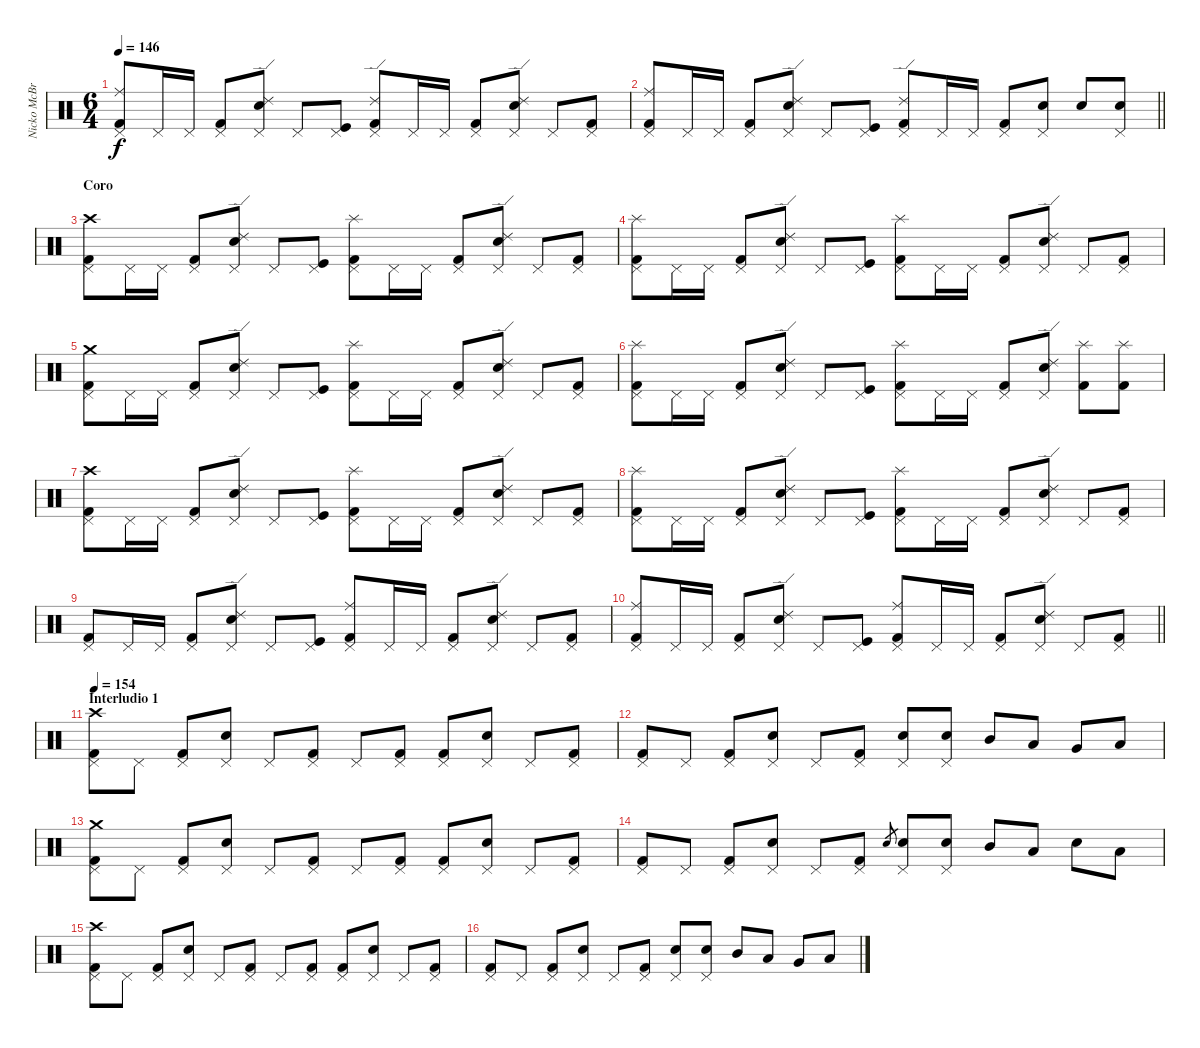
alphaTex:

\track ("Nicko McBrain" "Nicko McBr") {instrument percussion}
\staff {score}
\articulation defaults
\ts (6 4)
\tempo 146
\clef neutral
\ks c
("Kick (hit) 2" "Pedal Hi-Hat (hit)" "Ride (middle)").8{dy f} "Pedal Hi-Hat (hit)".16 "Pedal Hi-Hat (hit)".16 ("Kick (hit) 2" "Pedal Hi-Hat (hit)").8 ("Snare (hit) 2" "Pedal Hi-Hat (hit)" "Ride (edge) 2").8 "Pedal Hi-Hat (hit)".8 ("Kick (hit)" "Pedal Hi-Hat (hit)").8 ("Kick (hit) 2" "Pedal Hi-Hat (hit)" "Ride (edge) 2").8 "Pedal Hi-Hat (hit)".16 "Pedal Hi-Hat (hit)".16 ("Kick (hit) 2" "Pedal Hi-Hat (hit)").8 ("Snare (hit) 2" "Pedal Hi-Hat (hit)" "Ride (edge) 2").8 "Pedal Hi-Hat (hit)".8 ("Kick (hit) 2" "Pedal Hi-Hat (hit)").8 |
\barLineRight lightlight
("Kick (hit) 2" "Pedal Hi-Hat (hit)" "Ride (middle)").8 "Pedal Hi-Hat (hit)".16 "Pedal Hi-Hat (hit)".16 ("Kick (hit) 2" "Pedal Hi-Hat (hit)").8 ("Snare (hit) 2" "Pedal Hi-Hat (hit)" "Ride (edge) 2").8 "Pedal Hi-Hat (hit)".8 ("Kick (hit)" "Pedal Hi-Hat (hit)").8 ("Kick (hit) 2" "Pedal Hi-Hat (hit)" "Ride (edge) 2").8 "Pedal Hi-Hat (hit)".16 "Pedal Hi-Hat (hit)".16 ("Kick (hit) 2" "Pedal Hi-Hat (hit)").8 ("Snare (hit) 2" "Pedal Hi-Hat (hit)").8 "Snare (hit) 2".8 ("Snare (hit) 2" "Pedal Hi-Hat (hit)").8 |
\section ("" "Coro")
("Kick (hit) 2" "Pedal Hi-Hat (hit)" "Crash high (hit)").8 "Pedal Hi-Hat (hit)".16 "Pedal Hi-Hat (hit)".16 ("Kick (hit) 2" "Pedal Hi-Hat (hit)").8 ("Snare (hit) 2" "Pedal Hi-Hat (hit)" "Ride (edge) 2").8 "Pedal Hi-Hat (hit)".8 ("Kick (hit)" "Pedal Hi-Hat (hit)").8 ("Kick (hit) 2" "Pedal Hi-Hat (hit)" "Splash (hit)").8 "Pedal Hi-Hat (hit)".16 "Pedal Hi-Hat (hit)".16 ("Kick (hit) 2" "Pedal Hi-Hat (hit)").8 ("Snare (hit) 2" "Pedal Hi-Hat (hit)" "Ride (edge) 2").8 "Pedal Hi-Hat (hit)".8 ("Kick (hit) 2" "Pedal Hi-Hat (hit)").8 |
("Kick (hit) 2" "Pedal Hi-Hat (hit)" "Splash (hit)").8 "Pedal Hi-Hat (hit)".16 "Pedal Hi-Hat (hit)".16 ("Kick (hit) 2" "Pedal Hi-Hat (hit)").8 ("Snare (hit) 2" "Pedal Hi-Hat (hit)" "Ride (edge) 2").8 "Pedal Hi-Hat (hit)".8 ("Kick (hit)" "Pedal Hi-Hat (hit)").8 ("Kick (hit) 2" "Pedal Hi-Hat (hit)" "Splash (hit)").8 "Pedal Hi-Hat (hit)".16 "Pedal Hi-Hat (hit)".16 ("Kick (hit) 2" "Pedal Hi-Hat (hit)").8 ("Snare (hit) 2" "Pedal Hi-Hat (hit)" "Ride (edge) 2").8 "Pedal Hi-Hat (hit)".8 ("Kick (hit) 2" "Pedal Hi-Hat (hit)").8 |
("Kick (hit) 2" "Pedal Hi-Hat (hit)" "Crash medium (hit)").8 "Pedal Hi-Hat (hit)".16 "Pedal Hi-Hat (hit)".16 ("Kick (hit) 2" "Pedal Hi-Hat (hit)").8 ("Snare (hit) 2" "Pedal Hi-Hat (hit)" "Ride (edge) 2").8 "Pedal Hi-Hat (hit)".8 ("Kick (hit)" "Pedal Hi-Hat (hit)").8 ("Kick (hit) 2" "Pedal Hi-Hat (hit)" "Splash (hit)").8 "Pedal Hi-Hat (hit)".16 "Pedal Hi-Hat (hit)".16 ("Kick (hit) 2" "Pedal Hi-Hat (hit)").8 ("Snare (hit) 2" "Pedal Hi-Hat (hit)" "Ride (edge) 2").8 "Pedal Hi-Hat (hit)".8 ("Kick (hit) 2" "Pedal Hi-Hat (hit)").8 |
("Kick (hit) 2" "Pedal Hi-Hat (hit)" "Splash (hit)").8 "Pedal Hi-Hat (hit)".16 "Pedal Hi-Hat (hit)".16 ("Kick (hit) 2" "Pedal Hi-Hat (hit)").8 ("Snare (hit) 2" "Pedal Hi-Hat (hit)" "Ride (edge) 2").8 "Pedal Hi-Hat (hit)".8 ("Kick (hit)" "Pedal Hi-Hat (hit)").8 ("Kick (hit) 2" "Pedal Hi-Hat (hit)" "Splash (hit)").8 "Pedal Hi-Hat (hit)".16 "Pedal Hi-Hat (hit)".16 ("Kick (hit) 2" "Pedal Hi-Hat (hit)").8 ("Snare (hit) 2" "Pedal Hi-Hat (hit)" "Ride (edge) 2").8 ("Kick (hit) 2" "Splash (hit)").8 ("Kick (hit) 2" "Splash (hit)").8 |
("Kick (hit) 2" "Pedal Hi-Hat (hit)" "Crash high (hit)").8 "Pedal Hi-Hat (hit)".16 "Pedal Hi-Hat (hit)".16 ("Kick (hit) 2" "Pedal Hi-Hat (hit)").8 ("Snare (hit) 2" "Pedal Hi-Hat (hit)" "Ride (edge) 2").8 "Pedal Hi-Hat (hit)".8 ("Kick (hit)" "Pedal Hi-Hat (hit)").8 ("Kick (hit) 2" "Pedal Hi-Hat (hit)" "Splash (hit)").8 "Pedal Hi-Hat (hit)".16 "Pedal Hi-Hat (hit)".16 ("Kick (hit) 2" "Pedal Hi-Hat (hit)").8 ("Snare (hit) 2" "Pedal Hi-Hat (hit)" "Ride (edge) 2").8 "Pedal Hi-Hat (hit)".8 ("Kick (hit) 2" "Pedal Hi-Hat (hit)").8 |
("Kick (hit) 2" "Pedal Hi-Hat (hit)" "Splash (hit)").8 "Pedal Hi-Hat (hit)".16 "Pedal Hi-Hat (hit)".16 ("Kick (hit) 2" "Pedal Hi-Hat (hit)").8 ("Snare (hit) 2" "Pedal Hi-Hat (hit)" "Ride (edge) 2").8 "Pedal Hi-Hat (hit)".8 ("Kick (hit)" "Pedal Hi-Hat (hit)").8 ("Kick (hit) 2" "Pedal Hi-Hat (hit)" "Splash (hit)").8 "Pedal Hi-Hat (hit)".16 "Pedal Hi-Hat (hit)".16 ("Kick (hit) 2" "Pedal Hi-Hat (hit)").8 ("Snare (hit) 2" "Pedal Hi-Hat (hit)" "Ride (edge) 2").8 "Pedal Hi-Hat (hit)".8 ("Kick (hit) 2" "Pedal Hi-Hat (hit)").8 |
("Kick (hit) 2" "Pedal Hi-Hat (hit)").8 "Pedal Hi-Hat (hit)".16 "Pedal Hi-Hat (hit)".16 ("Kick (hit) 2" "Pedal Hi-Hat (hit)").8 ("Snare (hit) 2" "Pedal Hi-Hat (hit)" "Ride (edge) 2").8 "Pedal Hi-Hat (hit)".8 ("Kick (hit)" "Pedal Hi-Hat (hit)").8 ("Kick (hit) 2" "Pedal Hi-Hat (hit)" "Ride (middle)").8 "Pedal Hi-Hat (hit)".16 "Pedal Hi-Hat (hit)".16 ("Kick (hit) 2" "Pedal Hi-Hat (hit)").8 ("Snare (hit) 2" "Pedal Hi-Hat (hit)" "Ride (edge) 2").8 "Pedal Hi-Hat (hit)".8 ("Kick (hit) 2" "Pedal Hi-Hat (hit)").8 |
\barLineRight lightlight
("Kick (hit) 2" "Pedal Hi-Hat (hit)" "Ride (middle)").8 "Pedal Hi-Hat (hit)".16 "Pedal Hi-Hat (hit)".16 ("Kick (hit) 2" "Pedal Hi-Hat (hit)").8 ("Snare (hit) 2" "Pedal Hi-Hat (hit)" "Ride (edge) 2").8 "Pedal Hi-Hat (hit)".8 ("Kick (hit)" "Pedal Hi-Hat (hit)").8 ("Kick (hit) 2" "Pedal Hi-Hat (hit)" "Ride (middle)").8 "Pedal Hi-Hat (hit)".16 "Pedal Hi-Hat (hit)".16 ("Kick (hit) 2" "Pedal Hi-Hat (hit)").8 ("Snare (hit) 2" "Pedal Hi-Hat (hit)" "Ride (edge) 2").8 "Pedal Hi-Hat (hit)".8 ("Kick (hit) 2" "Pedal Hi-Hat (hit)").8 |
\section ("" "Interludio 1")
\tempo 154
("Kick (hit) 2" "Pedal Hi-Hat (hit)" "Crash high (hit)").8 "Pedal Hi-Hat (hit)".8 ("Kick (hit) 2" "Pedal Hi-Hat (hit)").8 ("Snare (hit) 2" "Pedal Hi-Hat (hit)").8 "Pedal Hi-Hat (hit)".8 ("Kick (hit) 2" "Pedal Hi-Hat (hit)").8 "Pedal Hi-Hat (hit)".8 ("Kick (hit) 2" "Pedal Hi-Hat (hit)").8 ("Kick (hit) 2" "Pedal Hi-Hat (hit)").8 ("Snare (hit) 2" "Pedal Hi-Hat (hit)").8 "Pedal Hi-Hat (hit)".8 ("Kick (hit) 2" "Pedal Hi-Hat (hit)").8 |
("Kick (hit) 2" "Pedal Hi-Hat (hit)").8 "Pedal Hi-Hat (hit)".8 ("Kick (hit) 2" "Pedal Hi-Hat (hit)").8 ("Snare (hit) 2" "Pedal Hi-Hat (hit)").8 "Pedal Hi-Hat (hit)".8 ("Kick (hit) 2" "Pedal Hi-Hat (hit)").8 ("Snare (hit) 2" "Pedal Hi-Hat (hit)").8 ("Snare (hit) 2" "Pedal Hi-Hat (hit)").8 "Mid Tom (hit)".8 "Low Tom (hit)".8 "Very Low Tom (hit)".8 "Low Floor Tom (hit)".8 |
("Kick (hit) 2" "Pedal Hi-Hat (hit)" "Crash medium (hit)").8 "Pedal Hi-Hat (hit)".8 ("Kick (hit) 2" "Pedal Hi-Hat (hit)").8 ("Snare (hit) 2" "Pedal Hi-Hat (hit)").8 "Pedal Hi-Hat (hit)".8 ("Kick (hit) 2" "Pedal Hi-Hat (hit)").8 "Pedal Hi-Hat (hit)".8 ("Kick (hit) 2" "Pedal Hi-Hat (hit)").8 ("Kick (hit) 2" "Pedal Hi-Hat (hit)").8 ("Snare (hit) 2" "Pedal Hi-Hat (hit)").8 "Pedal Hi-Hat (hit)".8 ("Kick (hit) 2" "Pedal Hi-Hat (hit)").8 |
("Kick (hit) 2" "Pedal Hi-Hat (hit)").8 "Pedal Hi-Hat (hit)".8 ("Kick (hit) 2" "Pedal Hi-Hat (hit)").8 ("Snare (hit) 2" "Pedal Hi-Hat (hit)").8 "Pedal Hi-Hat (hit)".8 ("Kick (hit) 2" "Pedal Hi-Hat (hit)").8 "Snare (hit) 2".8{gr} ("Snare (hit) 2" "Pedal Hi-Hat (hit)").8 ("Snare (hit) 2" "Pedal Hi-Hat (hit)").8 "Mid Tom (hit)".8 "Low Tom (hit)".8 "Snare (hit) 2".8 "Low Floor Tom (hit)".8 |
("Kick (hit) 2" "Pedal Hi-Hat (hit)" "Crash high (hit)").8 "Pedal Hi-Hat (hit)".8 ("Kick (hit) 2" "Pedal Hi-Hat (hit)").8 ("Snare (hit) 2" "Pedal Hi-Hat (hit)").8 "Pedal Hi-Hat (hit)".8 ("Kick (hit) 2" "Pedal Hi-Hat (hit)").8 "Pedal Hi-Hat (hit)".8 ("Kick (hit) 2" "Pedal Hi-Hat (hit)").8 ("Kick (hit) 2" "Pedal Hi-Hat (hit)").8 ("Snare (hit) 2" "Pedal Hi-Hat (hit)").8 "Pedal Hi-Hat (hit)".8 ("Kick (hit) 2" "Pedal Hi-Hat (hit)").8 |
("Kick (hit) 2" "Pedal Hi-Hat (hit)").8 "Pedal Hi-Hat (hit)".8 ("Kick (hit) 2" "Pedal Hi-Hat (hit)").8 ("Snare (hit) 2" "Pedal Hi-Hat (hit)").8 "Pedal Hi-Hat (hit)".8 ("Kick (hit) 2" "Pedal Hi-Hat (hit)").8 ("Snare (hit) 2" "Pedal Hi-Hat (hit)").8 ("Snare (hit) 2" "Pedal Hi-Hat (hit)").8 "Mid Tom (hit)".8 "Low Tom (hit)".8 "Very Low Tom (hit)".8 "Low Floor Tom (hit)".8
